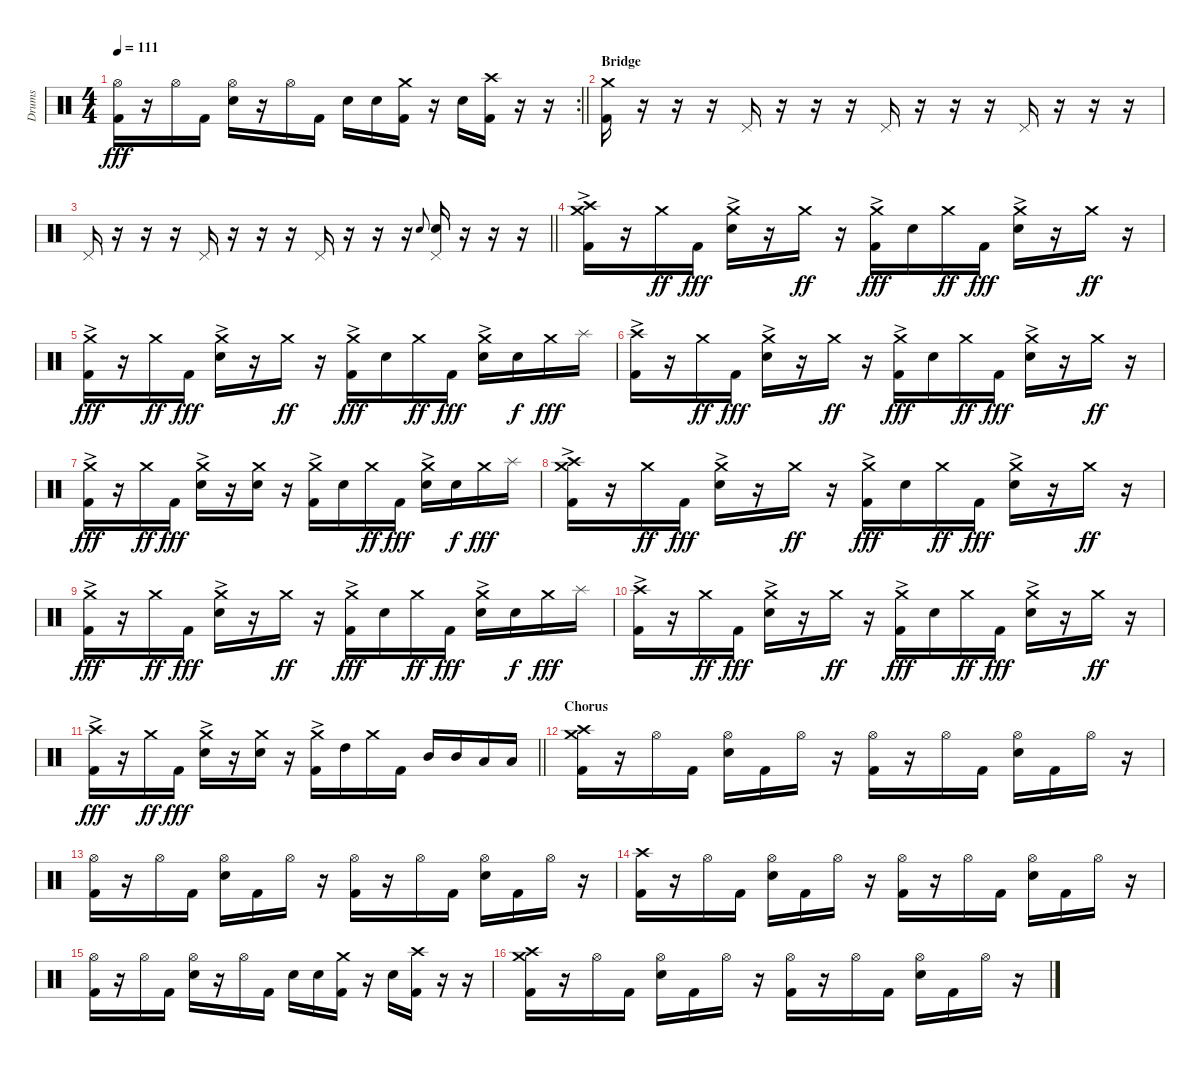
\track ("Drums" "Drums") {instrument percussion}
\staff {score}
\articulation defaults
\rc 2
\ts (4 4)
\tempo 111
\clef neutral
\barLineRight lightlight
\ks c
("Hi-Hat (open)" "Kick (hit) 2").16{dy fff} r.16 "Hi-Hat (open)".16 "Kick (hit) 2".16 ("Hi-Hat (open)" "Electric Snare (hit)").16 r.16 "Hi-Hat (open)".16 "Kick (hit) 2".16 "Electric Snare (hit)".16 "Electric Snare (hit)".16 ("Crash medium (hit)" "Kick (hit) 2").16 r.16 "Electric Snare (hit)".16 ("Crash high (hit)" "Kick (hit) 2").16 r.16 r.16 |
\section ("" "Bridge")
("Crash medium (hit)" "Kick (hit) 2").16 r.16 r.16 r.16 "Pedal Hi-Hat (hit)".16 r.16 r.16 r.16 "Pedal Hi-Hat (hit)".16 r.16 r.16 r.16 "Pedal Hi-Hat (hit)".16 r.16 r.16 r.16 |
\barLineRight lightlight "Pedal Hi-Hat (hit)".16
r.16 r.16 r.16 "Pedal Hi-Hat (hit)".16 r.16 r.16 r.16 "Pedal Hi-Hat (hit)".16 r.16 r.16 r.16 "Electric Snare (hit)".8{gr onbeat} ("Pedal Hi-Hat (hit)" "Electric Snare (hit)").16 r.16 r.16 r.16 |
("Crash medium (hit)"{ac} "Crash high (hit)" "Kick (hit) 2").16 r.16 "Crash medium (hit)".16{dy ff} "Kick (hit) 2".16{dy fff} ("Crash medium (hit)"{ac} "Electric Snare (hit)").16 r.16 "Crash medium (hit)".16{dy ff} r.16 ("Crash medium (hit)"{ac} "Kick (hit) 2").16{dy fff} "Electric Snare (hit)".16 "Crash medium (hit)".16{dy ff} "Kick (hit) 2".16{dy fff} ("Crash medium (hit)"{ac} "Electric Snare (hit)").16 r.16 "Crash medium (hit)".16{dy ff} r.16 |
("Crash medium (hit)"{ac} "Kick (hit) 2").16{dy fff} r.16 "Crash medium (hit)".16{dy ff} "Kick (hit) 2".16{dy fff} ("Crash medium (hit)"{ac} "Electric Snare (hit)").16 r.16 "Crash medium (hit)".16{dy ff} r.16 ("Crash medium (hit)"{ac} "Kick (hit) 2").16{dy fff} "Electric Snare (hit)".16 "Crash medium (hit)".16{dy ff} "Kick (hit) 2".16{dy fff} ("Crash medium (hit)"{ac} "Electric Snare (hit)").16 "Electric Snare (hit)".16{dy f} "Crash medium (hit)".16{dy fff} "Splash (hit)".16 |
("Crash high (hit)"{ac} "Kick (hit) 2").16 r.16 "Crash medium (hit)".16{dy ff} "Kick (hit) 2".16{dy fff} ("Crash medium (hit)"{ac} "Electric Snare (hit)").16 r.16 "Crash medium (hit)".16{dy ff} r.16 ("Crash medium (hit)"{ac} "Kick (hit) 2").16{dy fff} "Electric Snare (hit)".16 "Crash medium (hit)".16{dy ff} "Kick (hit) 2".16{dy fff} ("Crash medium (hit)"{ac} "Electric Snare (hit)").16 r.16 "Crash medium (hit)".16{dy ff} r.16 |
("Crash medium (hit)"{ac} "Kick (hit) 2").16{dy fff} r.16 "Crash medium (hit)".16{dy ff} "Kick (hit) 2".16{dy fff} ("Crash medium (hit)"{ac} "Electric Snare (hit)").16 r.16 ("Crash medium (hit)" "Snare (hit) 2").16 r.16 ("Crash medium (hit)"{ac} "Kick (hit) 2").16 "Electric Snare (hit)".16 "Crash medium (hit)".16{dy ff} "Kick (hit) 2".16{dy fff} ("Crash medium (hit)"{ac} "Electric Snare (hit)").16 "Electric Snare (hit)".16{dy f} "Crash medium (hit)".16{dy fff} "Splash (hit)".16 |
("Crash medium (hit)"{ac} "Crash high (hit)" "Kick (hit) 2").16 r.16 "Crash medium (hit)".16{dy ff} "Kick (hit) 2".16{dy fff} ("Crash medium (hit)"{ac} "Electric Snare (hit)").16 r.16 "Crash medium (hit)".16{dy ff} r.16 ("Crash medium (hit)"{ac} "Kick (hit) 2").16{dy fff} "Electric Snare (hit)".16 "Crash medium (hit)".16{dy ff} "Kick (hit) 2".16{dy fff} ("Crash medium (hit)"{ac} "Electric Snare (hit)").16 r.16 "Crash medium (hit)".16{dy ff} r.16 |
("Crash medium (hit)"{ac} "Kick (hit) 2").16{dy fff} r.16 "Crash medium (hit)".16{dy ff} "Kick (hit) 2".16{dy fff} ("Crash medium (hit)"{ac} "Electric Snare (hit)").16 r.16 "Crash medium (hit)".16{dy ff} r.16 ("Crash medium (hit)"{ac} "Kick (hit) 2").16{dy fff} "Electric Snare (hit)".16 "Crash medium (hit)".16{dy ff} "Kick (hit) 2".16{dy fff} ("Crash medium (hit)"{ac} "Electric Snare (hit)").16 "Electric Snare (hit)".16{dy f} "Crash medium (hit)".16{dy fff} "Splash (hit)".16 |
("Crash high (hit)"{ac} "Kick (hit) 2").16 r.16 "Crash medium (hit)".16{dy ff} "Kick (hit) 2".16{dy fff} ("Crash medium (hit)"{ac} "Electric Snare (hit)").16 r.16 "Crash medium (hit)".16{dy ff} r.16 ("Crash medium (hit)"{ac} "Kick (hit) 2").16{dy fff} "Electric Snare (hit)".16 "Crash medium (hit)".16{dy ff} "Kick (hit) 2".16{dy fff} ("Crash medium (hit)"{ac} "Electric Snare (hit)").16 r.16 "Crash medium (hit)".16{dy ff} r.16 |
\barLineRight lightlight
("Crash high (hit)"{ac} "Kick (hit) 2").16{dy fff} r.16 "Crash medium (hit)".16{dy ff} "Kick (hit) 2".16{dy fff} ("Crash medium (hit)"{ac} "Electric Snare (hit)").16 r.16 ("Crash medium (hit)" "Electric Snare (hit)").16 r.16 ("Crash medium (hit)"{ac} "Kick (hit) 2").16 "High Tom (hit)".16 "Crash medium (hit)".16 "Kick (hit) 2".16 "Mid Tom (hit)".16 "Mid Tom (hit)".16 "Low Tom (hit)".16 "Low Tom (hit)".16 |
\section ("" "Chorus")
("Crash medium (hit)" "Crash high (hit)" "Kick (hit) 2").16 r.16 "Hi-Hat (open)".16 "Kick (hit) 2".16 ("Hi-Hat (open)" "Electric Snare (hit)").16 "Kick (hit) 2".16 "Hi-Hat (open)".16 r.16 ("Hi-Hat (open)" "Kick (hit) 2").16 r.16 "Hi-Hat (open)".16 "Kick (hit) 2".16 ("Hi-Hat (open)" "Electric Snare (hit)").16 "Kick (hit) 2".16 "Hi-Hat (open)".16 r.16 |
("Hi-Hat (open)" "Kick (hit) 2").16 r.16 "Hi-Hat (open)".16 "Kick (hit) 2".16 ("Hi-Hat (open)" "Electric Snare (hit)").16 "Kick (hit) 2".16 "Hi-Hat (open)".16 r.16 ("Hi-Hat (open)" "Kick (hit) 2").16 r.16 "Hi-Hat (open)".16 "Kick (hit) 2".16 ("Hi-Hat (open)" "Electric Snare (hit)").16 "Kick (hit) 2".16 "Hi-Hat (open)".16 r.16 |
("Crash high (hit)" "Kick (hit) 2").16 r.16 "Hi-Hat (open)".16 "Kick (hit) 2".16 ("Hi-Hat (open)" "Electric Snare (hit)").16 "Kick (hit) 2".16 "Hi-Hat (open)".16 r.16 ("Hi-Hat (open)" "Kick (hit) 2").16 r.16 "Hi-Hat (open)".16 "Kick (hit) 2".16 ("Hi-Hat (open)" "Electric Snare (hit)").16 "Kick (hit) 2".16 "Hi-Hat (open)".16 r.16 |
("Hi-Hat (open)" "Kick (hit) 2").16 r.16 "Hi-Hat (open)".16 "Kick (hit) 2".16 ("Hi-Hat (open)" "Electric Snare (hit)").16 r.16 "Hi-Hat (open)".16 "Kick (hit) 2".16 "Electric Snare (hit)".16 "Electric Snare (hit)".16 ("Crash medium (hit)" "Kick (hit) 2").16 r.16 "Electric Snare (hit)".16 ("Crash high (hit)" "Kick (hit) 2").16 r.16 r.16 |
("Crash medium (hit)" "Crash high (hit)" "Kick (hit) 2").16 r.16 "Hi-Hat (open)".16 "Kick (hit) 2".16 ("Hi-Hat (open)" "Electric Snare (hit)").16 "Kick (hit) 2".16 "Hi-Hat (open)".16 r.16 ("Hi-Hat (open)" "Kick (hit) 2").16 r.16 "Hi-Hat (open)".16 "Kick (hit) 2".16 ("Hi-Hat (open)" "Electric Snare (hit)").16 "Kick (hit) 2".16 "Hi-Hat (open)".16 r.16
